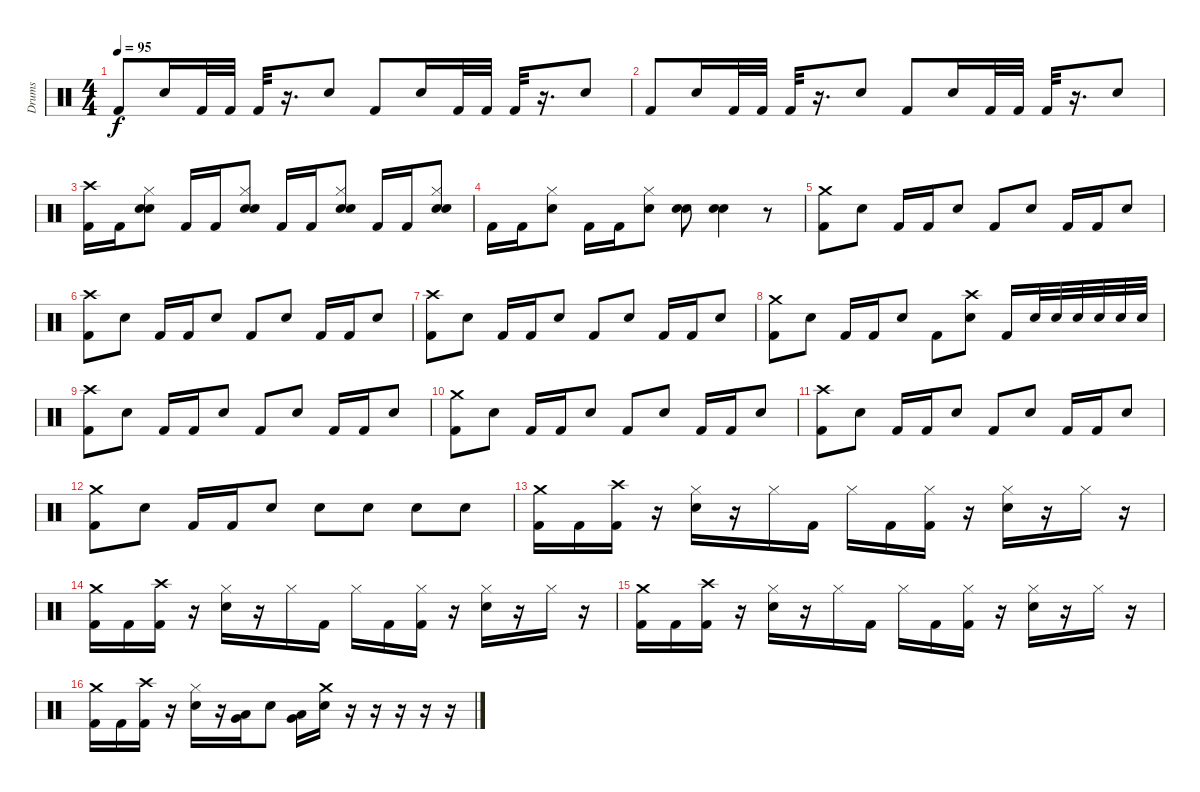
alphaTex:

\track ("Drums" "Drums") {instrument percussion}
\staff {score}
\articulation defaults
\ts (4 4)
\tempo 95
\clef neutral
\ks c "Kick (hit) 2".8{dy f} "Electric Snare (hit)".16 "Kick (hit) 2".32 "Kick (hit) 2".32 "Kick (hit) 2".32
r.16{d} "Electric Snare (hit)".8 "Kick (hit) 2".8 "Electric Snare (hit)".16 "Kick (hit) 2".32 "Kick (hit) 2".32 "Kick (hit) 2".32 r.16{d} "Electric Snare (hit)".8 |
"Kick (hit) 2".8 "Electric Snare (hit)".16 "Kick (hit) 2".32 "Kick (hit) 2".32 "Kick (hit) 2".32 r.16{d} "Electric Snare (hit)".8 "Kick (hit) 2".8 "Electric Snare (hit)".16 "Kick (hit) 2".32 "Kick (hit) 2".32 "Kick (hit) 2".32 r.16{d} "Electric Snare (hit)".8 |
("Crash high (hit)" "Kick (hit) 2").16 "Kick (hit) 2".16 ("Hi-Hat (closed)" "Snare (hit) 2" "Electric Snare (hit)").8 "Kick (hit) 2".16 "Kick (hit) 2".16 ("Hi-Hat (closed)" "Snare (hit) 2" "Electric Snare (hit)").8 "Kick (hit) 2".16 "Kick (hit) 2".16 ("Hi-Hat (closed)" "Snare (hit) 2" "Electric Snare (hit)").8 "Kick (hit) 2".16 "Kick (hit) 2".16 ("Hi-Hat (closed)" "Snare (hit) 2" "Electric Snare (hit)").8 |
"Kick (hit) 2".16 "Kick (hit) 2".16 ("Hi-Hat (closed)" "Electric Snare (hit)").8 "Kick (hit) 2".16 "Kick (hit) 2".16 ("Hi-Hat (closed)" "Electric Snare (hit)").8 ("Snare (hit) 2" "Electric Snare (hit)").8 ("Snare (hit) 2" "Electric Snare (hit)").4 r.8 |
("Crash medium (hit)" "Kick (hit) 2").8 "Electric Snare (hit)".8 "Kick (hit) 2".16 "Kick (hit) 2".16 "Electric Snare (hit)".8 "Kick (hit) 2".8 "Electric Snare (hit)".8 "Kick (hit) 2".16 "Kick (hit) 2".16 "Electric Snare (hit)".8 |
("Crash high (hit)" "Kick (hit) 2").8 "Electric Snare (hit)".8 "Kick (hit) 2".16 "Kick (hit) 2".16 "Electric Snare (hit)".8 "Kick (hit) 2".8 "Electric Snare (hit)".8 "Kick (hit) 2".16 "Kick (hit) 2".16 "Electric Snare (hit)".8 |
("Crash high (hit)" "Kick (hit) 2").8 "Electric Snare (hit)".8 "Kick (hit) 2".16 "Kick (hit) 2".16 "Electric Snare (hit)".8 "Kick (hit) 2".8 "Electric Snare (hit)".8 "Kick (hit) 2".16 "Kick (hit) 2".16 "Electric Snare (hit)".8 |
("Crash medium (hit)" "Kick (hit) 2").8 "Electric Snare (hit)".8 "Kick (hit) 2".16 "Kick (hit) 2".16 "Electric Snare (hit)".8 "Kick (hit) 2".8 ("Crash high (hit)" "Electric Snare (hit)").8 "Kick (hit) 2".16 "Electric Snare (hit)".32 "Electric Snare (hit)".32 "Electric Snare (hit)".32 "Electric Snare (hit)".32 "Electric Snare (hit)".32 "Electric Snare (hit)".32 |
("Crash high (hit)" "Kick (hit) 2").8 "Electric Snare (hit)".8 "Kick (hit) 2".16 "Kick (hit) 2".16 "Electric Snare (hit)".8 "Kick (hit) 2".8 "Electric Snare (hit)".8 "Kick (hit) 2".16 "Kick (hit) 2".16 "Electric Snare (hit)".8 |
("Crash medium (hit)" "Kick (hit) 2").8 "Electric Snare (hit)".8 "Kick (hit) 2".16 "Kick (hit) 2".16 "Electric Snare (hit)".8 "Kick (hit) 2".8 "Electric Snare (hit)".8 "Kick (hit) 2".16 "Kick (hit) 2".16 "Electric Snare (hit)".8 |
("Crash high (hit)" "Kick (hit) 2").8 "Electric Snare (hit)".8 "Kick (hit) 2".16 "Kick (hit) 2".16 "Electric Snare (hit)".8 "Kick (hit) 2".8 "Electric Snare (hit)".8 "Kick (hit) 2".16 "Kick (hit) 2".16 "Electric Snare (hit)".8 |
("Crash medium (hit)" "Kick (hit) 2").8 "Electric Snare (hit)".8 "Kick (hit) 2".16 "Kick (hit) 2".16 "Electric Snare (hit)".8 "Electric Snare (hit)".8 "Electric Snare (hit)".8 "Electric Snare (hit)".8 "Electric Snare (hit)".8 |
("Crash medium (hit)" "Kick (hit) 2").16 "Kick (hit) 2".16 ("Crash high (hit)" "Kick (hit) 2").16 r.16 ("Hi-Hat (closed)" "Electric Snare (hit)").16 r.16 "Hi-Hat (closed)".16 "Kick (hit) 2".16 "Hi-Hat (closed)".16 "Kick (hit) 2".16 ("Hi-Hat (closed)" "Kick (hit) 2").16 r.16 ("Hi-Hat (closed)" "Electric Snare (hit)").16 r.16 "Hi-Hat (closed)".16 r.16 |
("Crash medium (hit)" "Kick (hit) 2").16 "Kick (hit) 2".16 ("Crash high (hit)" "Kick (hit) 2").16 r.16 ("Hi-Hat (closed)" "Electric Snare (hit)").16 r.16 "Hi-Hat (closed)".16 "Kick (hit) 2".16 "Hi-Hat (closed)".16 "Kick (hit) 2".16 ("Hi-Hat (closed)" "Kick (hit) 2").16 r.16 ("Hi-Hat (closed)" "Electric Snare (hit)").16 r.16 "Hi-Hat (closed)".16 r.16 |
("Crash medium (hit)" "Kick (hit) 2").16 "Kick (hit) 2".16 ("Crash high (hit)" "Kick (hit) 2").16 r.16 ("Hi-Hat (closed)" "Electric Snare (hit)").16 r.16 "Hi-Hat (closed)".16 "Kick (hit) 2".16 "Hi-Hat (closed)".16 "Kick (hit) 2".16 ("Hi-Hat (closed)" "Kick (hit) 2").16 r.16 ("Hi-Hat (closed)" "Electric Snare (hit)").16 r.16 "Hi-Hat (closed)".16 r.16 |
("Crash medium (hit)" "Kick (hit) 2").16 "Kick (hit) 2".16 ("Crash high (hit)" "Kick (hit) 2").16 r.16 ("Hi-Hat (closed)" "Electric Snare (hit)").16 r.16 ("Very Low Tom (hit)" "Low Tom (hit)").16 "Electric Snare (hit)".8 ("Low Tom (hit)" "Very Low Tom (hit)").16 ("Crash medium (hit)" "Electric Snare (hit)").16 r.16 r.16 r.16 r.16 r.16
